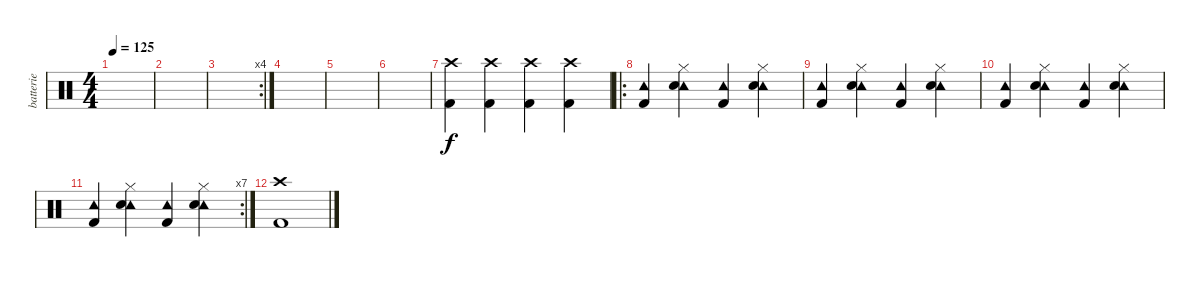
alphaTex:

\track ("batterie" "batterie") {instrument percussion}
\staff {score}
\articulation defaults
\ts (4 4)
\tempo 125
\clef neutral
\ks c
|
|
\rc 4
|
|
|
|
("Crash high (hit)" "Kick (hit) 2").4 ("Crash high (hit)" "Kick (hit) 2").4 ("Crash high (hit)" "Kick (hit) 2").4 ("Crash high (hit)" "Kick (hit) 2").4 |
\ro
("Tambourine (hit)" "Kick (hit) 2").4 ("Tambourine (hit)" "Hi-Hat (closed)" "Snare (hit) 2").4 ("Tambourine (hit)" "Kick (hit) 2").4 ("Tambourine (hit)" "Hi-Hat (closed)" "Snare (hit) 2").4 |
("Tambourine (hit)" "Kick (hit) 2").4 ("Tambourine (hit)" "Hi-Hat (closed)" "Snare (hit) 2").4 ("Tambourine (hit)" "Kick (hit) 2").4 ("Tambourine (hit)" "Hi-Hat (closed)" "Snare (hit) 2").4 |
("Tambourine (hit)" "Kick (hit) 2").4 ("Tambourine (hit)" "Hi-Hat (closed)" "Snare (hit) 2").4 ("Tambourine (hit)" "Kick (hit) 2").4 ("Tambourine (hit)" "Hi-Hat (closed)" "Snare (hit) 2").4 |
\rc 7
("Tambourine (hit)" "Kick (hit) 2").4 ("Tambourine (hit)" "Hi-Hat (closed)" "Snare (hit) 2").4 ("Tambourine (hit)" "Kick (hit) 2").4 ("Tambourine (hit)" "Hi-Hat (closed)" "Snare (hit) 2").4 |
("Crash high (hit)" "Kick (hit) 2").1
